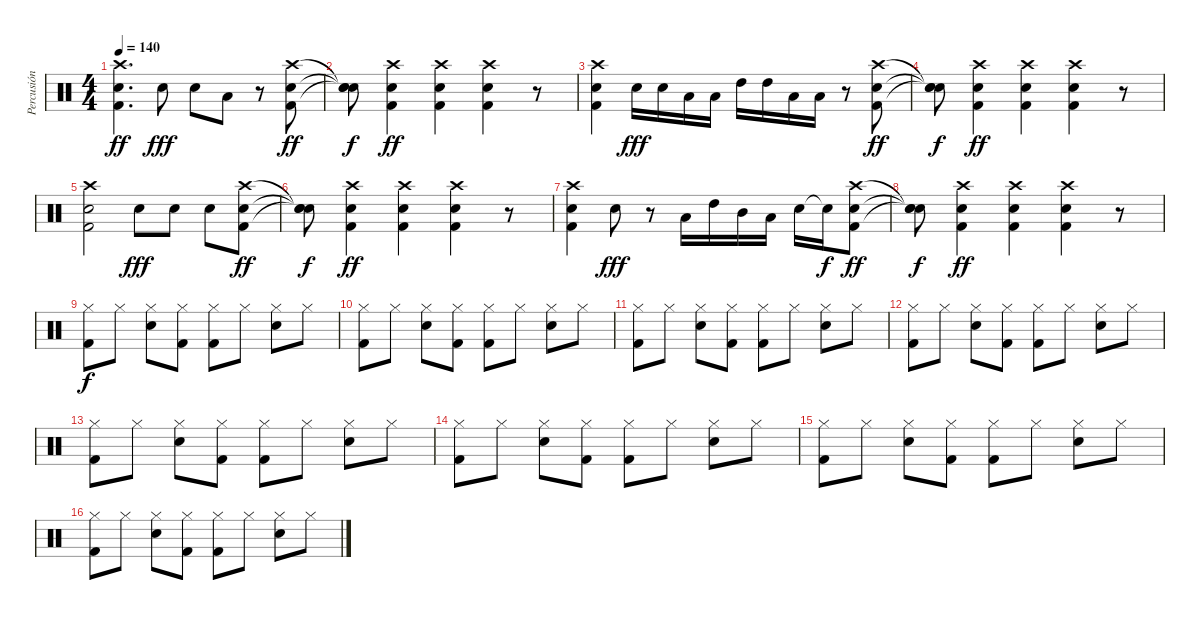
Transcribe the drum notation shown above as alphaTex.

\track ("Percusión" "Percusión") {instrument percussion}
\staff {score}
\articulation defaults
\ts (4 4)
\tempo 140
\clef neutral
\ks c
("Crash high (hit)" "Snare (hit) 2" "Kick (hit) 2").4{d dy ff} "Snare (hit) 2".8{dy fff} "Snare (hit) 2".8 "Low Tom (hit)".8 r.8 ("Crash high (hit)" "Snare (hit) 2" "Kick (hit) 2").8{dy ff} |
("Snare (hit)"{t} "Snare (hit)"{t} "Snare (hit)"{t}).8{dy f} ("Crash high (hit)" "Kick (hit) 2" "Snare (hit) 2").4{dy ff} ("Crash high (hit)" "Kick (hit) 2" "Snare (hit) 2").4 ("Crash high (hit)" "Kick (hit) 2" "Snare (hit) 2").4 r.8 |
("Crash high (hit)" "Snare (hit) 2" "Kick (hit) 2").4 "Snare (hit) 2".16{dy fff} "Snare (hit) 2".16 "Low Tom (hit)".16 "Low Tom (hit)".16 "High Tom (hit)".16 "High Tom (hit)".16 "Low Floor Tom (hit)".16 "Low Floor Tom (hit)".16 r.8 ("Crash high (hit)" "Snare (hit) 2" "Kick (hit) 2").8{dy ff} |
("Snare (hit)"{t} "Snare (hit)"{t} "Snare (hit)"{t}).8{dy f} ("Crash high (hit)" "Kick (hit) 2" "Snare (hit) 2").4{dy ff} ("Crash high (hit)" "Kick (hit) 2" "Snare (hit) 2").4 ("Crash high (hit)" "Kick (hit) 2" "Snare (hit) 2").4 r.8 |
("Crash high (hit)" "Snare (hit) 2" "Kick (hit) 2").2 "Snare (hit) 2".8{dy fff} "Snare (hit) 2".8 "Snare (hit) 2".8 ("Crash high (hit)" "Snare (hit) 2" "Kick (hit) 2").8{dy ff} |
("Snare (hit)"{t} "Snare (hit)"{t} "Snare (hit)"{t}).8{dy f} ("Crash high (hit)" "Kick (hit) 2" "Snare (hit) 2").4{dy ff} ("Crash high (hit)" "Kick (hit) 2" "Snare (hit) 2").4 ("Crash high (hit)" "Kick (hit) 2" "Snare (hit) 2").4 r.8 |
("Crash high (hit)" "Snare (hit) 2" "Kick (hit) 2").4 "Snare (hit) 2".8{dy fff} r.8 "Low Tom (hit)".16 "High Tom (hit)".16 "Mid Tom (hit)".16 "Low Floor Tom (hit)".16 "Snare (hit) 2".16 "Snare (hit)"{t}.16{dy f} ("Crash high (hit)" "Snare (hit) 2" "Kick (hit) 2").8{dy ff} |
("Snare (hit)"{t} "Snare (hit)"{t} "Snare (hit)"{t}).8{dy f} ("Crash high (hit)" "Kick (hit) 2" "Snare (hit) 2").4{dy ff} ("Crash high (hit)" "Kick (hit) 2" "Snare (hit) 2").4 ("Crash high (hit)" "Kick (hit) 2" "Snare (hit) 2").4 r.8 |
("Hi-Hat (closed)" "Kick (hit) 2").8{dy f} "Hi-Hat (closed)".8 ("Hi-Hat (closed)" "Snare (hit) 2").8 ("Hi-Hat (closed)" "Kick (hit) 2").8 ("Hi-Hat (closed)" "Kick (hit) 2").8 "Hi-Hat (closed)".8 ("Hi-Hat (closed)" "Snare (hit) 2").8 "Hi-Hat (closed)".8 |
("Hi-Hat (closed)" "Kick (hit) 2").8 "Hi-Hat (closed)".8 ("Hi-Hat (closed)" "Snare (hit) 2").8 ("Hi-Hat (closed)" "Kick (hit) 2").8 ("Hi-Hat (closed)" "Kick (hit) 2").8 "Hi-Hat (closed)".8 ("Hi-Hat (closed)" "Snare (hit) 2").8 "Hi-Hat (closed)".8 |
("Hi-Hat (closed)" "Kick (hit) 2").8 "Hi-Hat (closed)".8 ("Hi-Hat (closed)" "Snare (hit) 2").8 ("Hi-Hat (closed)" "Kick (hit) 2").8 ("Hi-Hat (closed)" "Kick (hit) 2").8 "Hi-Hat (closed)".8 ("Hi-Hat (closed)" "Snare (hit) 2").8 "Hi-Hat (closed)".8 |
("Hi-Hat (closed)" "Kick (hit) 2").8 "Hi-Hat (closed)".8 ("Hi-Hat (closed)" "Snare (hit) 2").8 ("Hi-Hat (closed)" "Kick (hit) 2").8 ("Hi-Hat (closed)" "Kick (hit) 2").8 "Hi-Hat (closed)".8 ("Hi-Hat (closed)" "Snare (hit) 2").8 "Hi-Hat (closed)".8 |
("Hi-Hat (closed)" "Kick (hit) 2").8 "Hi-Hat (closed)".8 ("Hi-Hat (closed)" "Snare (hit) 2").8 ("Hi-Hat (closed)" "Kick (hit) 2").8 ("Hi-Hat (closed)" "Kick (hit) 2").8 "Hi-Hat (closed)".8 ("Hi-Hat (closed)" "Snare (hit) 2").8 "Hi-Hat (closed)".8 |
("Hi-Hat (closed)" "Kick (hit) 2").8 "Hi-Hat (closed)".8 ("Hi-Hat (closed)" "Snare (hit) 2").8 ("Hi-Hat (closed)" "Kick (hit) 2").8 ("Hi-Hat (closed)" "Kick (hit) 2").8 "Hi-Hat (closed)".8 ("Hi-Hat (closed)" "Snare (hit) 2").8 "Hi-Hat (closed)".8 |
("Hi-Hat (closed)" "Kick (hit) 2").8 "Hi-Hat (closed)".8 ("Hi-Hat (closed)" "Snare (hit) 2").8 ("Hi-Hat (closed)" "Kick (hit) 2").8 ("Hi-Hat (closed)" "Kick (hit) 2").8 "Hi-Hat (closed)".8 ("Hi-Hat (closed)" "Snare (hit) 2").8 "Hi-Hat (closed)".8 |
("Hi-Hat (closed)" "Kick (hit) 2").8 "Hi-Hat (closed)".8 ("Hi-Hat (closed)" "Snare (hit) 2").8 ("Hi-Hat (closed)" "Kick (hit) 2").8 ("Hi-Hat (closed)" "Kick (hit) 2").8 "Hi-Hat (closed)".8 ("Hi-Hat (closed)" "Snare (hit) 2").8 "Hi-Hat (closed)".8
